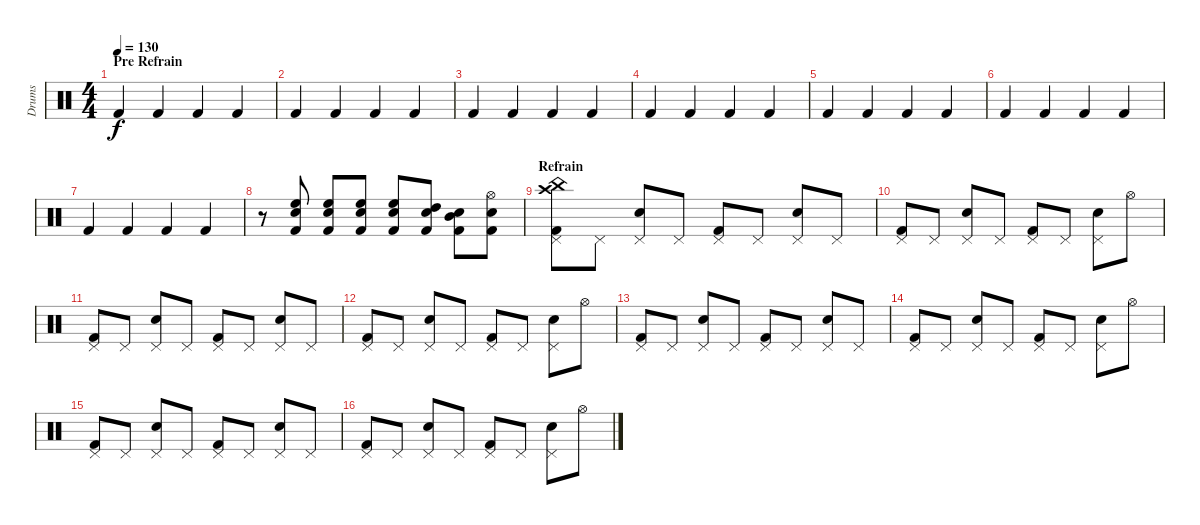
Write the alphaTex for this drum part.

\track ("Drums" "Drums") {instrument percussion}
\staff {score}
\articulation defaults
\ts (4 4)
\section ("" "Pre Refrain")
\tempo 130
\clef neutral
\ks c "Kick (hit) 2".4{dy f} "Kick (hit) 2".4 "Kick (hit) 2".4 "Kick (hit) 2".4
|
"Kick (hit) 2".4 "Kick (hit) 2".4 "Kick (hit) 2".4 "Kick (hit) 2".4 |
"Kick (hit) 2".4 "Kick (hit) 2".4 "Kick (hit) 2".4 "Kick (hit) 2".4 |
"Kick (hit) 2".4 "Kick (hit) 2".4 "Kick (hit) 2".4 "Kick (hit) 2".4 |
"Kick (hit) 2".4 "Kick (hit) 2".4 "Kick (hit) 2".4 "Kick (hit) 2".4 |
"Kick (hit) 2".4 "Kick (hit) 2".4 "Kick (hit) 2".4 "Kick (hit) 2".4 |
"Kick (hit) 2".4 "Kick (hit) 2".4 "Kick (hit) 2".4 "Kick (hit) 2".4 |
r.8 ("High Floor Tom (hit)" "Snare (hit) 2" "Kick (hit) 2").8 ("High Floor Tom (hit)" "Snare (hit) 2" "Kick (hit) 2").8 ("High Floor Tom (hit)" "Snare (hit) 2" "Kick (hit) 2").8 ("High Floor Tom (hit)" "Snare (hit) 2" "Kick (hit) 2").8 ("High Tom (hit)" "Snare (hit) 2" "Kick (hit) 2").8 ("Mid Tom (hit)" "Snare (hit) 2" "Kick (hit) 2").8 ("Hi-Hat (open)" "Snare (hit) 2" "Kick (hit) 2").8 |
\section ("" "Refrain")
("China (hit)" "Pedal Hi-Hat (hit)" "Crash high (hit)" "Kick (hit) 2").8 "Pedal Hi-Hat (hit)".8 ("Pedal Hi-Hat (hit)" "Snare (hit) 2").8 "Pedal Hi-Hat (hit)".8 ("Pedal Hi-Hat (hit)" "Kick (hit) 2").8 "Pedal Hi-Hat (hit)".8 ("Pedal Hi-Hat (hit)" "Snare (hit) 2").8 "Pedal Hi-Hat (hit)".8 |
("Pedal Hi-Hat (hit)" "Kick (hit) 2").8 "Pedal Hi-Hat (hit)".8 ("Pedal Hi-Hat (hit)" "Snare (hit) 2").8 "Pedal Hi-Hat (hit)".8 ("Pedal Hi-Hat (hit)" "Kick (hit) 2").8 "Pedal Hi-Hat (hit)".8 ("Pedal Hi-Hat (hit)" "Snare (hit) 2").8 "Hi-Hat (open)".8 |
("Pedal Hi-Hat (hit)" "Kick (hit) 2").8 "Pedal Hi-Hat (hit)".8 ("Pedal Hi-Hat (hit)" "Snare (hit) 2").8 "Pedal Hi-Hat (hit)".8 ("Pedal Hi-Hat (hit)" "Kick (hit) 2").8 "Pedal Hi-Hat (hit)".8 ("Pedal Hi-Hat (hit)" "Snare (hit) 2").8 "Pedal Hi-Hat (hit)".8 |
("Pedal Hi-Hat (hit)" "Kick (hit) 2").8 "Pedal Hi-Hat (hit)".8 ("Pedal Hi-Hat (hit)" "Snare (hit) 2").8 "Pedal Hi-Hat (hit)".8 ("Pedal Hi-Hat (hit)" "Kick (hit) 2").8 "Pedal Hi-Hat (hit)".8 ("Pedal Hi-Hat (hit)" "Snare (hit) 2").8 "Hi-Hat (open)".8 |
("Pedal Hi-Hat (hit)" "Kick (hit) 2").8 "Pedal Hi-Hat (hit)".8 ("Pedal Hi-Hat (hit)" "Snare (hit) 2").8 "Pedal Hi-Hat (hit)".8 ("Pedal Hi-Hat (hit)" "Kick (hit) 2").8 "Pedal Hi-Hat (hit)".8 ("Pedal Hi-Hat (hit)" "Snare (hit) 2").8 "Pedal Hi-Hat (hit)".8 |
("Pedal Hi-Hat (hit)" "Kick (hit) 2").8 "Pedal Hi-Hat (hit)".8 ("Pedal Hi-Hat (hit)" "Snare (hit) 2").8 "Pedal Hi-Hat (hit)".8 ("Pedal Hi-Hat (hit)" "Kick (hit) 2").8 "Pedal Hi-Hat (hit)".8 ("Pedal Hi-Hat (hit)" "Snare (hit) 2").8 "Hi-Hat (open)".8 |
("Pedal Hi-Hat (hit)" "Kick (hit) 2").8 "Pedal Hi-Hat (hit)".8 ("Pedal Hi-Hat (hit)" "Snare (hit) 2").8 "Pedal Hi-Hat (hit)".8 ("Pedal Hi-Hat (hit)" "Kick (hit) 2").8 "Pedal Hi-Hat (hit)".8 ("Pedal Hi-Hat (hit)" "Snare (hit) 2").8 "Pedal Hi-Hat (hit)".8 |
("Pedal Hi-Hat (hit)" "Kick (hit) 2").8 "Pedal Hi-Hat (hit)".8 ("Pedal Hi-Hat (hit)" "Snare (hit) 2").8 "Pedal Hi-Hat (hit)".8 ("Pedal Hi-Hat (hit)" "Kick (hit) 2").8 "Pedal Hi-Hat (hit)".8 ("Pedal Hi-Hat (hit)" "Snare (hit) 2").8 "Hi-Hat (open)".8
